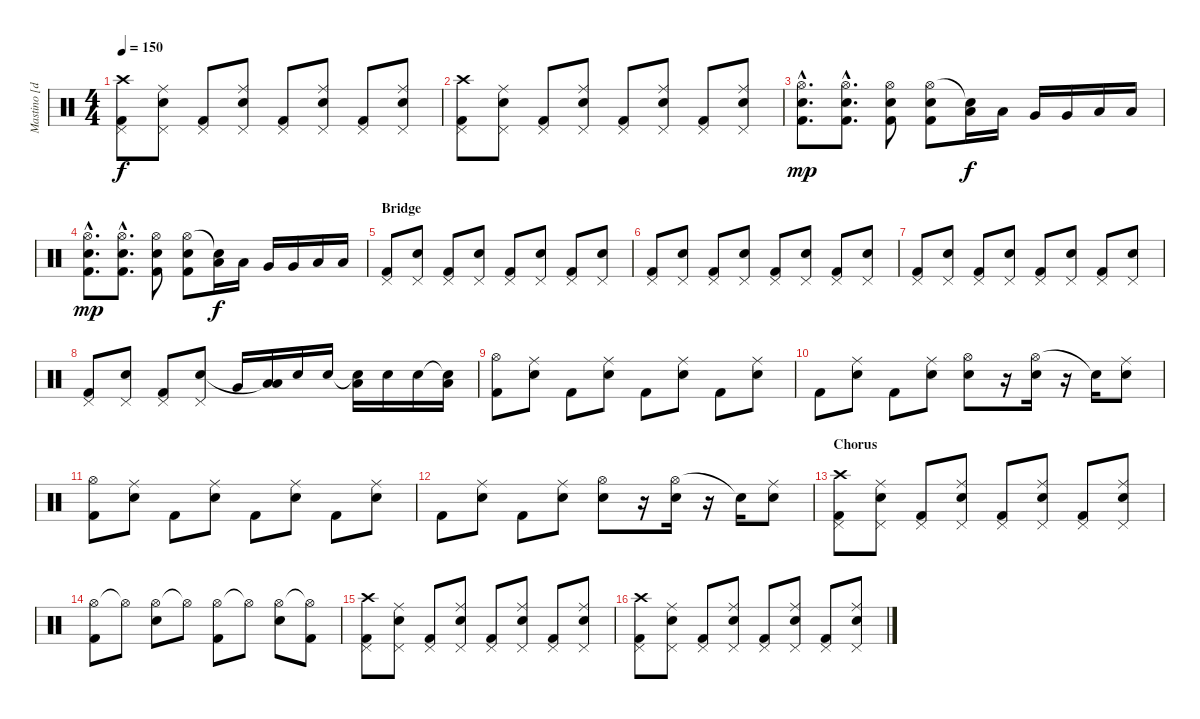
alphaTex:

\track ("Mastino [drums]" "Mastino [d") {instrument percussion}
\staff {score}
\articulation defaults
\ts (4 4)
\tempo 150
\clef neutral
\ks c
("Crash high (hit)" "Pedal Hi-Hat (hit)" "Kick (hit) 2").8{dy f} ("Ride (middle)" "Pedal Hi-Hat (hit)" "Electric Snare (hit)").8 ("Pedal Hi-Hat (hit)" "Kick (hit) 2").8 ("Ride (middle)" "Pedal Hi-Hat (hit)" "Electric Snare (hit)").8 ("Pedal Hi-Hat (hit)" "Kick (hit) 2").8 ("Ride (middle)" "Pedal Hi-Hat (hit)" "Electric Snare (hit)").8 ("Pedal Hi-Hat (hit)" "Kick (hit) 2").8 ("Ride (middle)" "Pedal Hi-Hat (hit)" "Electric Snare (hit)").8 |
("Crash high (hit)" "Pedal Hi-Hat (hit)" "Kick (hit) 2").8 ("Ride (middle)" "Pedal Hi-Hat (hit)" "Electric Snare (hit)").8 ("Pedal Hi-Hat (hit)" "Kick (hit) 2").8 ("Ride (middle)" "Pedal Hi-Hat (hit)" "Electric Snare (hit)").8 ("Pedal Hi-Hat (hit)" "Kick (hit) 2").8 ("Ride (middle)" "Pedal Hi-Hat (hit)" "Electric Snare (hit)").8 ("Pedal Hi-Hat (hit)" "Kick (hit) 2").8 ("Ride (middle)" "Pedal Hi-Hat (hit)" "Electric Snare (hit)").8 |
("Hi-Hat (open)"{hac} "Electric Snare (hit)"{hac} "Kick (hit) 2"{hac}).8{d dy mp} ("Hi-Hat (open)"{hac} "Electric Snare (hit)"{hac} "Kick (hit) 2"{hac}).8{d} ("Hi-Hat (open)" "Electric Snare (hit)" "Kick (hit) 2").8 ("Hi-Hat (open)" "Kick (hit) 2" "Electric Snare (hit)").8 ("Snare (hit)"{t} "Low Tom (hit)").16{dy f} "Low Tom (hit)".16 "Very Low Tom (hit)".16 "Very Low Tom (hit)".16 "Low Floor Tom (hit)".16 "Low Floor Tom (hit)".16 |
("Hi-Hat (open)"{hac} "Electric Snare (hit)"{hac} "Kick (hit) 2"{hac}).8{d dy mp} ("Hi-Hat (open)"{hac} "Electric Snare (hit)"{hac} "Kick (hit) 2"{hac}).8{d} ("Hi-Hat (open)" "Electric Snare (hit)" "Kick (hit) 2").8 ("Hi-Hat (open)" "Kick (hit) 2" "Electric Snare (hit)").8 ("Snare (hit)"{t} "Low Tom (hit)").16{dy f} "Low Tom (hit)".16 "Very Low Tom (hit)".16 "Very Low Tom (hit)".16 "Low Floor Tom (hit)".16 "Low Floor Tom (hit)".16 |
\section ("" "Bridge")
("Pedal Hi-Hat (hit)" "Kick (hit) 2").8 ("Pedal Hi-Hat (hit)" "Electric Snare (hit)").8 ("Pedal Hi-Hat (hit)" "Kick (hit) 2").8 ("Pedal Hi-Hat (hit)" "Electric Snare (hit)").8 ("Pedal Hi-Hat (hit)" "Kick (hit) 2").8 ("Pedal Hi-Hat (hit)" "Electric Snare (hit)").8 ("Pedal Hi-Hat (hit)" "Kick (hit) 2").8 ("Pedal Hi-Hat (hit)" "Electric Snare (hit)").8 |
("Pedal Hi-Hat (hit)" "Kick (hit) 2").8 ("Pedal Hi-Hat (hit)" "Electric Snare (hit)").8 ("Pedal Hi-Hat (hit)" "Kick (hit) 2").8 ("Pedal Hi-Hat (hit)" "Electric Snare (hit)").8 ("Pedal Hi-Hat (hit)" "Kick (hit) 2").8 ("Pedal Hi-Hat (hit)" "Electric Snare (hit)").8 ("Pedal Hi-Hat (hit)" "Kick (hit) 2").8 ("Pedal Hi-Hat (hit)" "Electric Snare (hit)").8 |
("Pedal Hi-Hat (hit)" "Kick (hit) 2").8 ("Pedal Hi-Hat (hit)" "Electric Snare (hit)").8 ("Pedal Hi-Hat (hit)" "Kick (hit) 2").8 ("Pedal Hi-Hat (hit)" "Electric Snare (hit)").8 ("Pedal Hi-Hat (hit)" "Kick (hit) 2").8 ("Pedal Hi-Hat (hit)" "Electric Snare (hit)").8 ("Pedal Hi-Hat (hit)" "Kick (hit) 2").8 ("Pedal Hi-Hat (hit)" "Electric Snare (hit)").8 |
("Pedal Hi-Hat (hit)" "Kick (hit) 2").8 ("Pedal Hi-Hat (hit)" "Electric Snare (hit)").8 ("Pedal Hi-Hat (hit)" "Kick (hit) 2").8 ("Pedal Hi-Hat (hit)" "Electric Snare (hit)").8 "Very Low Tom (hit)".16 ("Low Tom (hit)" "Low Floor Tom (hit)"{t}).16 "Electric Snare (hit)".16 "Electric Snare (hit)".16 ("Snare (hit)"{t} "Low Tom (hit)").16 "Electric Snare (hit)".16 "Electric Snare (hit)".16 ("Electric Snare (hit)"{t} "Low Tom (hit)").16 |
("Hi-Hat (open)" "Kick (hit) 2").8 ("Ride (middle)" "Electric Snare (hit)").8 "Kick (hit) 2".8 ("Ride (middle)" "Electric Snare (hit)").8 "Kick (hit) 2".8 ("Ride (middle)" "Electric Snare (hit)").8 "Kick (hit) 2".8 ("Ride (middle)" "Electric Snare (hit)").8 |
"Kick (hit) 2".8 ("Ride (middle)" "Electric Snare (hit)").8 "Kick (hit) 2".8 ("Ride (middle)" "Electric Snare (hit)").8 ("Hi-Hat (open)" "Electric Snare (hit)").8 r.16 ("Hi-Hat (open)" "Electric Snare (hit)").16 r.16 "Electric Snare (hit)"{t}.16 ("Ride (middle)" "Electric Snare (hit)").8 |
("Hi-Hat (open)" "Kick (hit) 2").8 ("Ride (middle)" "Electric Snare (hit)").8 "Kick (hit) 2".8 ("Ride (middle)" "Electric Snare (hit)").8 "Kick (hit) 2".8 ("Ride (middle)" "Electric Snare (hit)").8 "Kick (hit) 2".8 ("Ride (middle)" "Electric Snare (hit)").8 |
"Kick (hit) 2".8 ("Ride (middle)" "Electric Snare (hit)").8 "Kick (hit) 2".8 ("Ride (middle)" "Electric Snare (hit)").8 ("Hi-Hat (open)" "Electric Snare (hit)").8 r.16 ("Hi-Hat (open)" "Electric Snare (hit)").16 r.16 "Electric Snare (hit)"{t}.16 ("Ride (middle)" "Electric Snare (hit)").8 |
\section ("" "Chorus")
("Crash high (hit)" "Pedal Hi-Hat (hit)" "Kick (hit) 2").8 ("Ride (middle)" "Pedal Hi-Hat (hit)" "Electric Snare (hit)").8 ("Pedal Hi-Hat (hit)" "Kick (hit) 2").8 ("Ride (middle)" "Pedal Hi-Hat (hit)" "Electric Snare (hit)").8 ("Pedal Hi-Hat (hit)" "Kick (hit) 2").8 ("Ride (middle)" "Pedal Hi-Hat (hit)" "Electric Snare (hit)").8 ("Pedal Hi-Hat (hit)" "Kick (hit) 2").8 ("Ride (middle)" "Pedal Hi-Hat (hit)" "Electric Snare (hit)").8 |
("Hi-Hat (open)" "Kick (hit) 2").8 "Hi-Hat (open)"{t}.8 ("Hi-Hat (open)" "Electric Snare (hit)").8 "Hi-Hat (open)"{t}.8 ("Hi-Hat (open)" "Kick (hit) 2").8 "Hi-Hat (open)"{t}.8 ("Hi-Hat (open)" "Electric Snare (hit)").8 ("Hi-Hat (open)"{t} "Kick (hit) 2").8 |
("Crash high (hit)" "Pedal Hi-Hat (hit)" "Kick (hit) 2").8 ("Ride (middle)" "Pedal Hi-Hat (hit)" "Electric Snare (hit)").8 ("Pedal Hi-Hat (hit)" "Kick (hit) 2").8 ("Ride (middle)" "Pedal Hi-Hat (hit)" "Electric Snare (hit)").8 ("Pedal Hi-Hat (hit)" "Kick (hit) 2").8 ("Ride (middle)" "Pedal Hi-Hat (hit)" "Electric Snare (hit)").8 ("Pedal Hi-Hat (hit)" "Kick (hit) 2").8 ("Ride (middle)" "Pedal Hi-Hat (hit)" "Electric Snare (hit)").8 |
("Crash high (hit)" "Pedal Hi-Hat (hit)" "Kick (hit) 2").8 ("Ride (middle)" "Pedal Hi-Hat (hit)" "Electric Snare (hit)").8 ("Pedal Hi-Hat (hit)" "Kick (hit) 2").8 ("Ride (middle)" "Pedal Hi-Hat (hit)" "Electric Snare (hit)").8 ("Pedal Hi-Hat (hit)" "Kick (hit) 2").8 ("Ride (middle)" "Pedal Hi-Hat (hit)" "Electric Snare (hit)").8 ("Pedal Hi-Hat (hit)" "Kick (hit) 2").8 ("Ride (middle)" "Pedal Hi-Hat (hit)" "Electric Snare (hit)").8
